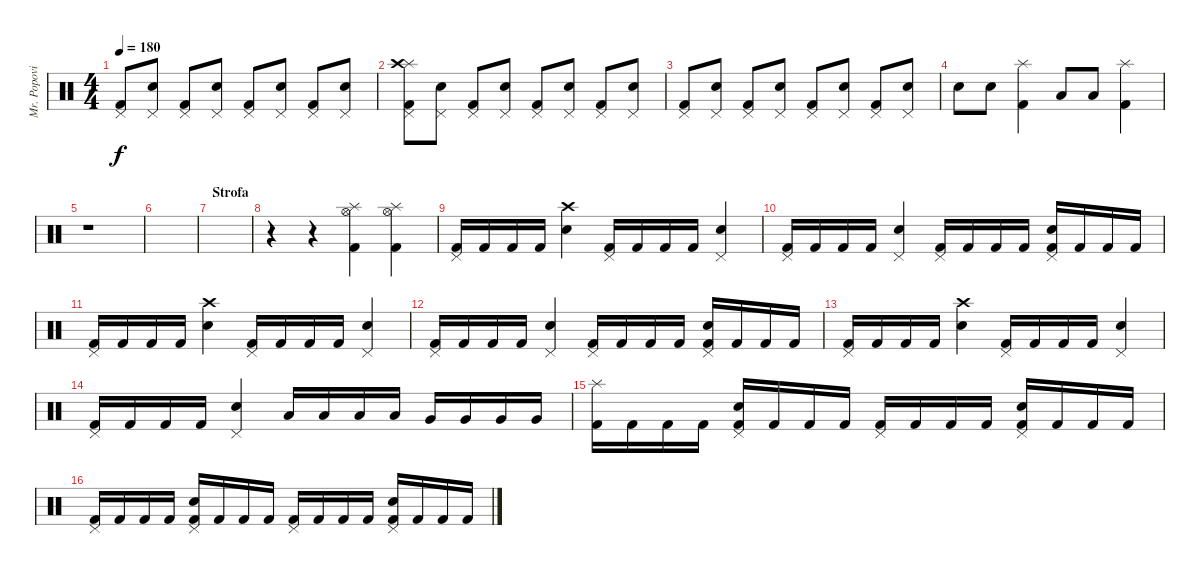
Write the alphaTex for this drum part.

\track ("Mr. Popovic" "Mr. Popovi") {instrument percussion}
\staff {score}
\articulation defaults
\ts (4 4)
\tempo 180
\clef neutral
\ks c
("Pedal Hi-Hat (hit)" "Kick (hit) 2").8{dy f} ("Pedal Hi-Hat (hit)" "Electric Snare (hit)").8 ("Pedal Hi-Hat (hit)" "Kick (hit) 2").8 ("Pedal Hi-Hat (hit)" "Electric Snare (hit)").8 ("Pedal Hi-Hat (hit)" "Kick (hit) 2").8 ("Pedal Hi-Hat (hit)" "Electric Snare (hit)").8 ("Pedal Hi-Hat (hit)" "Kick (hit) 2").8 ("Pedal Hi-Hat (hit)" "Electric Snare (hit)").8 |
("Splash (hit)" "Crash high (hit)" "Pedal Hi-Hat (hit)" "Kick (hit) 2").8 ("Pedal Hi-Hat (hit)" "Electric Snare (hit)").8 ("Pedal Hi-Hat (hit)" "Kick (hit) 2").8 ("Pedal Hi-Hat (hit)" "Electric Snare (hit)").8 ("Pedal Hi-Hat (hit)" "Kick (hit) 2").8 ("Pedal Hi-Hat (hit)" "Electric Snare (hit)").8 ("Pedal Hi-Hat (hit)" "Kick (hit) 2").8 ("Pedal Hi-Hat (hit)" "Electric Snare (hit)").8 |
("Pedal Hi-Hat (hit)" "Kick (hit) 2").8 ("Pedal Hi-Hat (hit)" "Electric Snare (hit)").8 ("Pedal Hi-Hat (hit)" "Kick (hit) 2").8 ("Pedal Hi-Hat (hit)" "Electric Snare (hit)").8 ("Pedal Hi-Hat (hit)" "Kick (hit) 2").8 ("Pedal Hi-Hat (hit)" "Electric Snare (hit)").8 ("Pedal Hi-Hat (hit)" "Kick (hit) 2").8 ("Pedal Hi-Hat (hit)" "Electric Snare (hit)").8 |
"Electric Snare (hit)".8 "Electric Snare (hit)".8 ("Splash (hit)" "Kick (hit) 2").4 "Low Tom (hit)".8 "Low Tom (hit)".8 ("Splash (hit)" "Kick (hit) 2").4 |
r.1 |
|
\section ("" "Strofa")
|
r.4 r.4 ("Hi-Hat (open)" "Splash (hit)" "Kick (hit) 2").4 ("Hi-Hat (open)" "Splash (hit)" "Kick (hit) 2").4 |
("Pedal Hi-Hat (hit)" "Kick (hit) 2").16 "Kick (hit) 2".16 "Kick (hit) 2".16 "Kick (hit) 2".16 ("Crash high (hit)" "Electric Snare (hit)").4 ("Pedal Hi-Hat (hit)" "Kick (hit) 2").16 "Kick (hit) 2".16 "Kick (hit) 2".16 "Kick (hit) 2".16 ("Pedal Hi-Hat (hit)" "Electric Snare (hit)").4 |
("Pedal Hi-Hat (hit)" "Kick (hit) 2").16 "Kick (hit) 2".16 "Kick (hit) 2".16 "Kick (hit) 2".16 ("Pedal Hi-Hat (hit)" "Electric Snare (hit)").4 ("Pedal Hi-Hat (hit)" "Kick (hit) 2").16 "Kick (hit) 2".16 "Kick (hit) 2".16 "Kick (hit) 2".16 ("Pedal Hi-Hat (hit)" "Electric Snare (hit)" "Kick (hit) 2").16 "Kick (hit) 2".16 "Kick (hit) 2".16 "Kick (hit) 2".16 |
("Pedal Hi-Hat (hit)" "Kick (hit) 2").16 "Kick (hit) 2".16 "Kick (hit) 2".16 "Kick (hit) 2".16 ("Crash high (hit)" "Electric Snare (hit)").4 ("Pedal Hi-Hat (hit)" "Kick (hit) 2").16 "Kick (hit) 2".16 "Kick (hit) 2".16 "Kick (hit) 2".16 ("Pedal Hi-Hat (hit)" "Electric Snare (hit)").4 |
("Pedal Hi-Hat (hit)" "Kick (hit) 2").16 "Kick (hit) 2".16 "Kick (hit) 2".16 "Kick (hit) 2".16 ("Pedal Hi-Hat (hit)" "Electric Snare (hit)").4 ("Pedal Hi-Hat (hit)" "Kick (hit) 2").16 "Kick (hit) 2".16 "Kick (hit) 2".16 "Kick (hit) 2".16 ("Pedal Hi-Hat (hit)" "Electric Snare (hit)" "Kick (hit) 2").16 "Kick (hit) 2".16 "Kick (hit) 2".16 "Kick (hit) 2".16 |
("Pedal Hi-Hat (hit)" "Kick (hit) 2").16 "Kick (hit) 2".16 "Kick (hit) 2".16 "Kick (hit) 2".16 ("Crash high (hit)" "Electric Snare (hit)").4 ("Pedal Hi-Hat (hit)" "Kick (hit) 2").16 "Kick (hit) 2".16 "Kick (hit) 2".16 "Kick (hit) 2".16 ("Pedal Hi-Hat (hit)" "Electric Snare (hit)").4 |
("Pedal Hi-Hat (hit)" "Kick (hit) 2").16 "Kick (hit) 2".16 "Kick (hit) 2".16 "Kick (hit) 2".16 ("Pedal Hi-Hat (hit)" "Electric Snare (hit)").4 "Low Tom (hit)".16 "Low Tom (hit)".16 "Low Tom (hit)".16 "Low Tom (hit)".16 "Very Low Tom (hit)".16 "Very Low Tom (hit)".16 "Very Low Tom (hit)".16 "Very Low Tom (hit)".16 |
("Splash (hit)" "Kick (hit) 2").16 "Kick (hit) 2".16 "Kick (hit) 2".16 "Kick (hit) 2".16 ("Pedal Hi-Hat (hit)" "Electric Snare (hit)" "Kick (hit) 2").16 "Kick (hit) 2".16 "Kick (hit) 2".16 "Kick (hit) 2".16 ("Pedal Hi-Hat (hit)" "Kick (hit) 2").16 "Kick (hit) 2".16 "Kick (hit) 2".16 "Kick (hit) 2".16 ("Pedal Hi-Hat (hit)" "Electric Snare (hit)" "Kick (hit) 2").16 "Kick (hit) 2".16 "Kick (hit) 2".16 "Kick (hit) 2".16 |
("Pedal Hi-Hat (hit)" "Kick (hit) 2").16 "Kick (hit) 2".16 "Kick (hit) 2".16 "Kick (hit) 2".16 ("Pedal Hi-Hat (hit)" "Electric Snare (hit)" "Kick (hit) 2").16 "Kick (hit) 2".16 "Kick (hit) 2".16 "Kick (hit) 2".16 ("Pedal Hi-Hat (hit)" "Kick (hit) 2").16 "Kick (hit) 2".16 "Kick (hit) 2".16 "Kick (hit) 2".16 ("Pedal Hi-Hat (hit)" "Electric Snare (hit)" "Kick (hit) 2").16 "Kick (hit) 2".16 "Kick (hit) 2".16 "Kick (hit) 2".16
